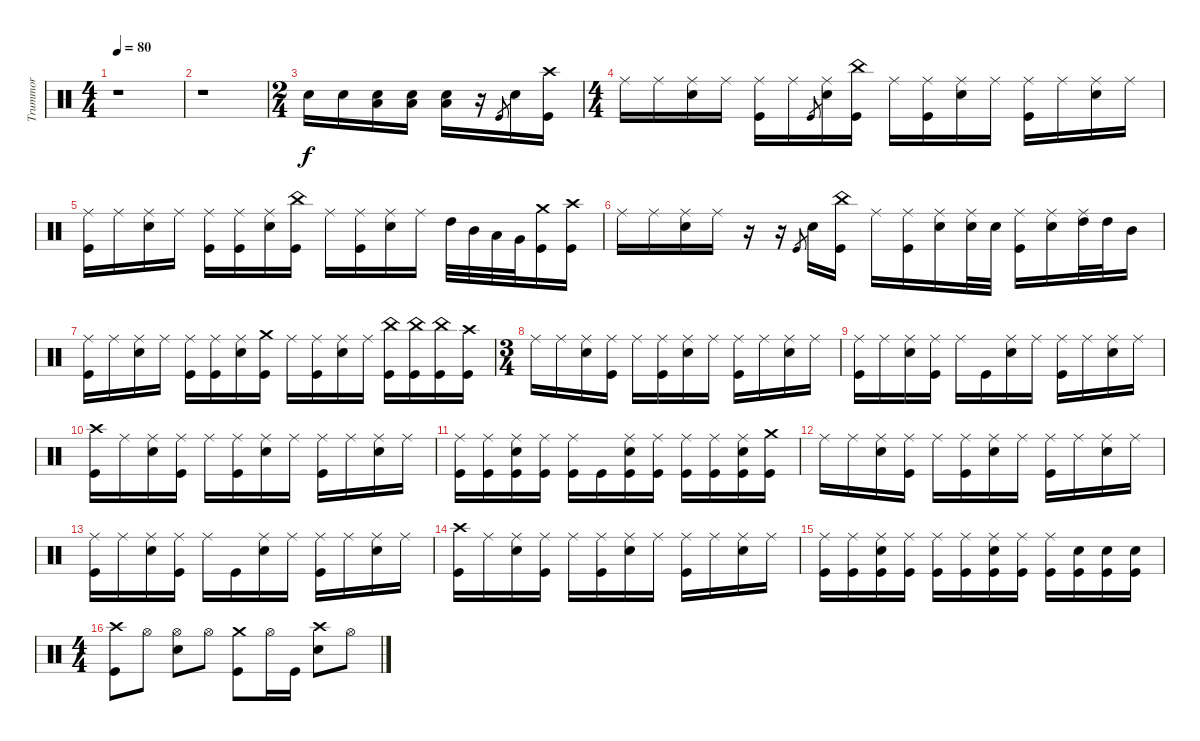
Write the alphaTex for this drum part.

\track ("Trummor" "Trummor") {instrument percussion}
\staff {score}
\articulation defaults
\ts (4 4)
\tempo 80
\clef neutral
\ks c
r.1{dy f} |
r.1 |
\ts (2 4)
"Electric Snare (hit)".16 "Electric Snare (hit)".16 ("Electric Snare (hit)" "Low Floor Tom (hit)").16 ("Electric Snare (hit)" "Low Floor Tom (hit)").16 ("Electric Snare (hit)" "Low Floor Tom (hit)").16 r.16 "Kick (hit)"{sl}.8{gr} "Electric Snare (hit)".16 ("Crash high (hit)" "Kick (hit)").16 |
\ts (4 4)
"Ride (middle)".16 "Ride (middle)".16 ("Ride (middle)" "Electric Snare (hit)").16 "Ride (middle)".16 ("Ride (middle)" "Kick (hit)").16 "Ride (middle)".16 "Kick (hit)"{sl}.8{gr} ("Ride (middle)" "Electric Snare (hit)").16 ("China (hit)" "Kick (hit)").16 "Ride (middle)".16 ("Ride (middle)" "Kick (hit)").16 ("Ride (middle)" "Electric Snare (hit)").16 "Ride (middle)".16 ("Ride (middle)" "Kick (hit)").16 "Ride (middle)".16 ("Ride (middle)" "Electric Snare (hit)").16 "Ride (middle)".16 |
("Ride (middle)" "Kick (hit)").16 "Ride (middle)".16 ("Ride (middle)" "Electric Snare (hit)").16 "Ride (middle)".16 ("Ride (middle)" "Kick (hit)").16 ("Ride (middle)" "Kick (hit)").16 ("Ride (middle)" "Electric Snare (hit)").16 ("China (hit)" "Kick (hit)").16 "Ride (middle)".16 ("Ride (middle)" "Kick (hit)").16 ("Ride (middle)" "Electric Snare (hit)").16 "Ride (middle)".16 "High Tom (hit)".32 "Mid Tom (hit)".32 "Low Tom (hit)".32 "Very Low Tom (hit)".32 ("Crash medium (hit)" "Kick (hit)").16 ("Crash high (hit)" "Kick (hit)").16 |
"Ride (middle)".16 "Ride (middle)".16 ("Ride (middle)" "Electric Snare (hit)").16 "Ride (middle)".16 r.16 r.16 "Kick (hit)"{sl}.8{gr} "Electric Snare (hit)".16 ("China (hit)" "Kick (hit)").16 "Ride (middle)".16 ("Ride (middle)" "Kick (hit)").16 ("Ride (middle)" "Electric Snare (hit)").16 ("Ride (middle)" "Electric Snare (hit)").32 "Electric Snare (hit)".32 ("Ride (middle)" "Kick (hit)").16 ("Ride (middle)" "Electric Snare (hit)").16 ("Ride (middle)" "High Tom (hit)").32 "High Tom (hit)".32 "Mid Tom (hit)".16 |
("Ride (middle)" "Kick (hit)").16 "Ride (middle)".16 ("Ride (middle)" "Electric Snare (hit)").16 "Ride (middle)".16 ("Ride (middle)" "Kick (hit)").16 ("Ride (middle)" "Kick (hit)").16 ("Ride (middle)" "Electric Snare (hit)").16 ("Crash medium (hit)" "Kick (hit)").16 "Ride (middle)".16 ("Ride (middle)" "Kick (hit)").16 ("Ride (middle)" "Electric Snare (hit)").16 "Ride (middle)".16 ("China (hit)" "Kick (hit)").16 ("China (hit)" "Kick (hit)").16 ("China (hit)" "Kick (hit)").16 ("Crash high (hit)" "Kick (hit)").16 |
\ts (3 4)
"Ride (middle)".16 "Ride (middle)".16 ("Ride (middle)" "Electric Snare (hit)").16 ("Ride (middle)" "Kick (hit)").16 "Ride (middle)".16 ("Ride (middle)" "Kick (hit)").16 ("Ride (middle)" "Electric Snare (hit)").16 "Ride (middle)".16 ("Ride (middle)" "Kick (hit)").16 "Ride (middle)".16 ("Ride (middle)" "Electric Snare (hit)").16 "Ride (middle)".16 |
("Ride (middle)" "Kick (hit)").16 "Ride (middle)".16 ("Ride (middle)" "Electric Snare (hit)").16 ("Ride (middle)" "Kick (hit)").16 "Ride (middle)".16 "Kick (hit)".16 ("Ride (middle)" "Electric Snare (hit)").16 "Ride (middle)".16 ("Ride (middle)" "Kick (hit)").16 "Ride (middle)".16 ("Ride (middle)" "Electric Snare (hit)").16 "Ride (middle)".16 |
("Crash high (hit)" "Kick (hit)").16 "Ride (middle)".16 ("Ride (middle)" "Electric Snare (hit)").16 ("Ride (middle)" "Kick (hit)").16 "Ride (middle)".16 ("Ride (middle)" "Kick (hit)").16 ("Ride (middle)" "Electric Snare (hit)").16 "Ride (middle)".16 ("Ride (middle)" "Kick (hit)").16 "Ride (middle)".16 ("Ride (middle)" "Electric Snare (hit)").16 "Ride (middle)".16 |
("Ride (middle)" "Kick (hit)").16 ("Ride (middle)" "Kick (hit)").16 ("Ride (middle)" "Electric Snare (hit)" "Kick (hit)").16 ("Ride (middle)" "Kick (hit)").16 ("Ride (middle)" "Kick (hit)").16 "Kick (hit)".16 ("Ride (middle)" "Electric Snare (hit)" "Kick (hit)").16 ("Ride (middle)" "Kick (hit)").16 ("Ride (middle)" "Kick (hit)").16 ("Ride (middle)" "Kick (hit)").16 ("Ride (middle)" "Electric Snare (hit)" "Kick (hit)").16 ("Crash medium (hit)" "Kick (hit)").16 |
"Ride (middle)".16 "Ride (middle)".16 ("Ride (middle)" "Electric Snare (hit)").16 ("Ride (middle)" "Kick (hit)").16 "Ride (middle)".16 ("Ride (middle)" "Kick (hit)").16 ("Ride (middle)" "Electric Snare (hit)").16 "Ride (middle)".16 ("Ride (middle)" "Kick (hit)").16 "Ride (middle)".16 ("Ride (middle)" "Electric Snare (hit)").16 "Ride (middle)".16 |
("Ride (middle)" "Kick (hit)").16 "Ride (middle)".16 ("Ride (middle)" "Electric Snare (hit)").16 ("Ride (middle)" "Kick (hit)").16 "Ride (middle)".16 "Kick (hit)".16 ("Ride (middle)" "Electric Snare (hit)").16 "Ride (middle)".16 ("Ride (middle)" "Kick (hit)").16 "Ride (middle)".16 ("Ride (middle)" "Electric Snare (hit)").16 "Ride (middle)".16 |
("Crash high (hit)" "Kick (hit)").16 "Ride (middle)".16 ("Ride (middle)" "Electric Snare (hit)").16 ("Ride (middle)" "Kick (hit)").16 "Ride (middle)".16 ("Ride (middle)" "Kick (hit)").16 ("Ride (middle)" "Electric Snare (hit)").16 "Ride (middle)".16 ("Ride (middle)" "Kick (hit)").16 "Ride (middle)".16 ("Ride (middle)" "Electric Snare (hit)").16 "Ride (middle)".16 |
("Ride (middle)" "Kick (hit)").16 ("Ride (middle)" "Kick (hit)").16 ("Ride (middle)" "Electric Snare (hit)" "Kick (hit)").16 ("Ride (middle)" "Kick (hit)").16 ("Ride (middle)" "Kick (hit)").16 ("Ride (middle)" "Kick (hit)").16 ("Ride (middle)" "Electric Snare (hit)" "Kick (hit)").16 ("Ride (middle)" "Kick (hit)").16 ("Ride (middle)" "Kick (hit)").16 ("Electric Snare (hit)" "Kick (hit)").16 ("Electric Snare (hit)" "Kick (hit)").16 ("Electric Snare (hit)" "Kick (hit)").16 |
\ts (4 4)
("Crash high (hit)" "Kick (hit)").8 "Hi-Hat (open)".8 ("Hi-Hat (open)" "Electric Snare (hit)").8 "Hi-Hat (open)".8 ("Crash medium (hit)" "Kick (hit)").8 "Hi-Hat (open)".16 "Kick (hit)".16 ("Crash high (hit)" "Electric Snare (hit)").8 "Hi-Hat (open)".8
